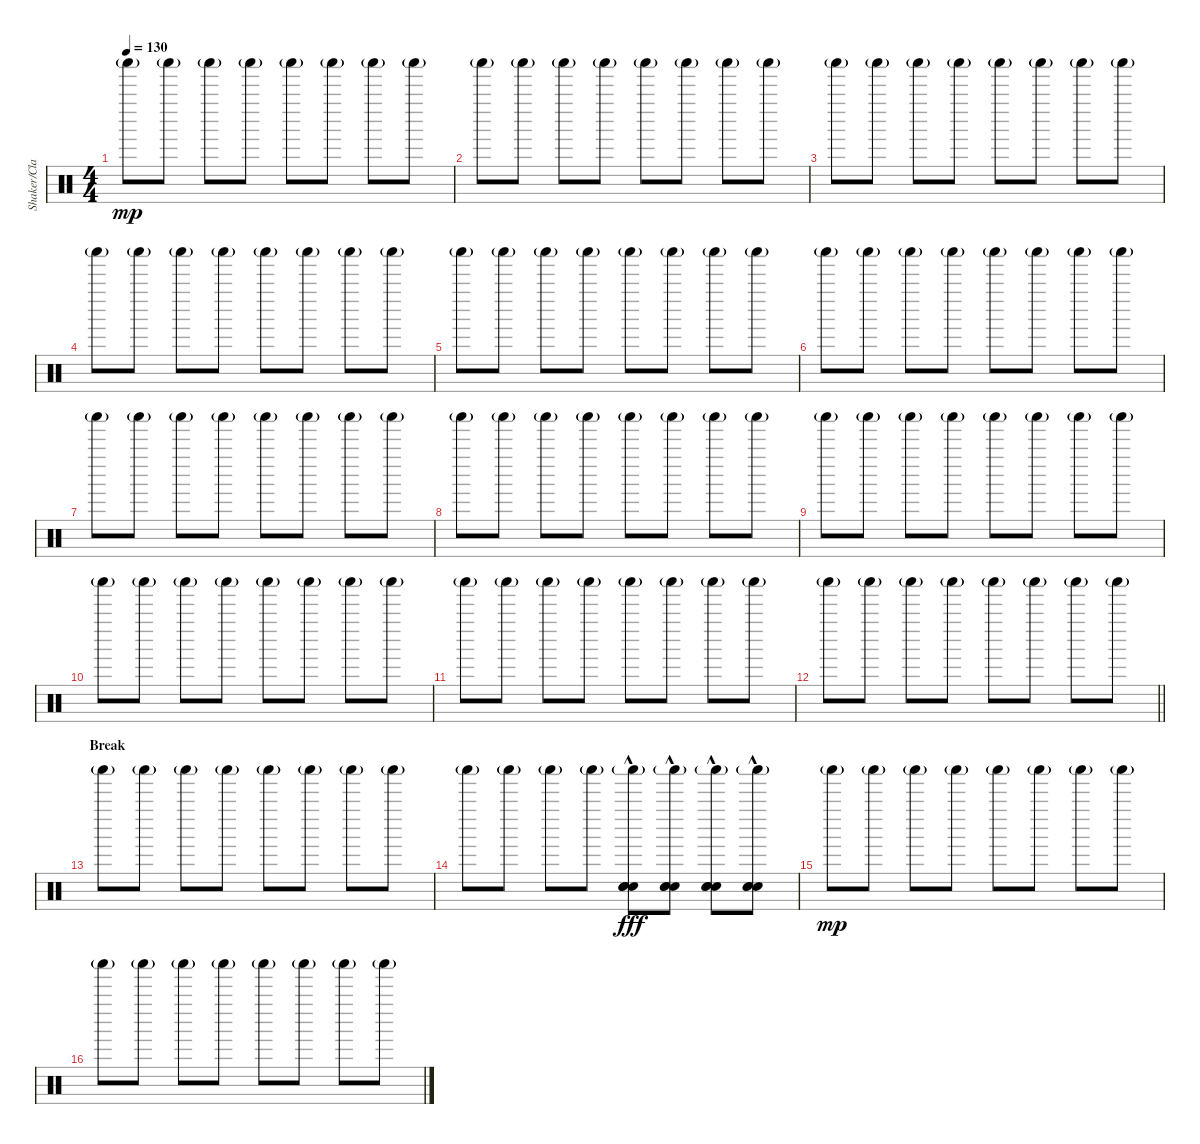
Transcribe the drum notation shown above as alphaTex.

\track ("Shaker/Claps" "Shaker/Cla") {instrument percussion}
\staff {score}
\articulation defaults
\ts (4 4)
\tempo 130
\clef neutral
\ks c "Shaker (hit)"{g}.8{dy mp} "Shaker (hit)"{g}.8 "Shaker (hit)"{g}.8 "Shaker (hit)"{g}.8 "Shaker (hit)"{g}.8 "Shaker (hit)"{g}.8 "Shaker (hit)"{g}.8 "Shaker (hit)"{g}.8
|
"Shaker (hit)"{g}.8 "Shaker (hit)"{g}.8 "Shaker (hit)"{g}.8 "Shaker (hit)"{g}.8 "Shaker (hit)"{g}.8 "Shaker (hit)"{g}.8 "Shaker (hit)"{g}.8 "Shaker (hit)"{g}.8 |
"Shaker (hit)"{g}.8 "Shaker (hit)"{g}.8 "Shaker (hit)"{g}.8 "Shaker (hit)"{g}.8 "Shaker (hit)"{g}.8 "Shaker (hit)"{g}.8 "Shaker (hit)"{g}.8 "Shaker (hit)"{g}.8 |
"Shaker (hit)"{g}.8 "Shaker (hit)"{g}.8 "Shaker (hit)"{g}.8 "Shaker (hit)"{g}.8 "Shaker (hit)"{g}.8 "Shaker (hit)"{g}.8 "Shaker (hit)"{g}.8 "Shaker (hit)"{g}.8 |
"Shaker (hit)"{g}.8 "Shaker (hit)"{g}.8 "Shaker (hit)"{g}.8 "Shaker (hit)"{g}.8 "Shaker (hit)"{g}.8 "Shaker (hit)"{g}.8 "Shaker (hit)"{g}.8 "Shaker (hit)"{g}.8 |
"Shaker (hit)"{g}.8 "Shaker (hit)"{g}.8 "Shaker (hit)"{g}.8 "Shaker (hit)"{g}.8 "Shaker (hit)"{g}.8 "Shaker (hit)"{g}.8 "Shaker (hit)"{g}.8 "Shaker (hit)"{g}.8 |
"Shaker (hit)"{g}.8 "Shaker (hit)"{g}.8 "Shaker (hit)"{g}.8 "Shaker (hit)"{g}.8 "Shaker (hit)"{g}.8 "Shaker (hit)"{g}.8 "Shaker (hit)"{g}.8 "Shaker (hit)"{g}.8 |
"Shaker (hit)"{g}.8 "Shaker (hit)"{g}.8 "Shaker (hit)"{g}.8 "Shaker (hit)"{g}.8 "Shaker (hit)"{g}.8 "Shaker (hit)"{g}.8 "Shaker (hit)"{g}.8 "Shaker (hit)"{g}.8 |
"Shaker (hit)"{g}.8 "Shaker (hit)"{g}.8 "Shaker (hit)"{g}.8 "Shaker (hit)"{g}.8 "Shaker (hit)"{g}.8 "Shaker (hit)"{g}.8 "Shaker (hit)"{g}.8 "Shaker (hit)"{g}.8 |
"Shaker (hit)"{g}.8 "Shaker (hit)"{g}.8 "Shaker (hit)"{g}.8 "Shaker (hit)"{g}.8 "Shaker (hit)"{g}.8 "Shaker (hit)"{g}.8 "Shaker (hit)"{g}.8 "Shaker (hit)"{g}.8 |
"Shaker (hit)"{g}.8 "Shaker (hit)"{g}.8 "Shaker (hit)"{g}.8 "Shaker (hit)"{g}.8 "Shaker (hit)"{g}.8 "Shaker (hit)"{g}.8 "Shaker (hit)"{g}.8 "Shaker (hit)"{g}.8 |
\barLineRight lightlight "Shaker (hit)"{g}.8 "Shaker (hit)"{g}.8 "Shaker (hit)"{g}.8 "Shaker (hit)"{g}.8 "Shaker (hit)"{g}.8 "Shaker (hit)"{g}.8 "Shaker (hit)"{g}.8 "Shaker (hit)"{g}.8
|
\section ("" "Break")
"Shaker (hit)"{g}.8 "Shaker (hit)"{g}.8 "Shaker (hit)"{g}.8 "Shaker (hit)"{g}.8 "Shaker (hit)"{g}.8 "Shaker (hit)"{g}.8 "Shaker (hit)"{g}.8 "Shaker (hit)"{g}.8 |
"Shaker (hit)"{g}.8 "Shaker (hit)"{g}.8 "Shaker (hit)"{g}.8 "Shaker (hit)"{g}.8 ("Shaker (hit)"{g} "Hand Clap (hit)" "Hand Clap (hit)"{hac} "Hand Clap (hit)"{hac}).8{dy fff} ("Shaker (hit)"{g} "Hand Clap (hit)"{hac} "Hand Clap (hit)"{hac} "Hand Clap (hit)"{hac}).8 ("Shaker (hit)"{g} "Hand Clap (hit)"{hac} "Hand Clap (hit)"{hac} "Hand Clap (hit)"{hac}).8 ("Shaker (hit)"{g} "Hand Clap (hit)"{hac} "Hand Clap (hit)"{hac} "Hand Clap (hit)"{hac}).8 |
"Shaker (hit)"{g}.8{dy mp} "Shaker (hit)"{g}.8 "Shaker (hit)"{g}.8 "Shaker (hit)"{g}.8 "Shaker (hit)"{g}.8 "Shaker (hit)"{g}.8 "Shaker (hit)"{g}.8 "Shaker (hit)"{g}.8 |
"Shaker (hit)"{g}.8 "Shaker (hit)"{g}.8 "Shaker (hit)"{g}.8 "Shaker (hit)"{g}.8 "Shaker (hit)"{g}.8 "Shaker (hit)"{g}.8 "Shaker (hit)"{g}.8 "Shaker (hit)"{g}.8
